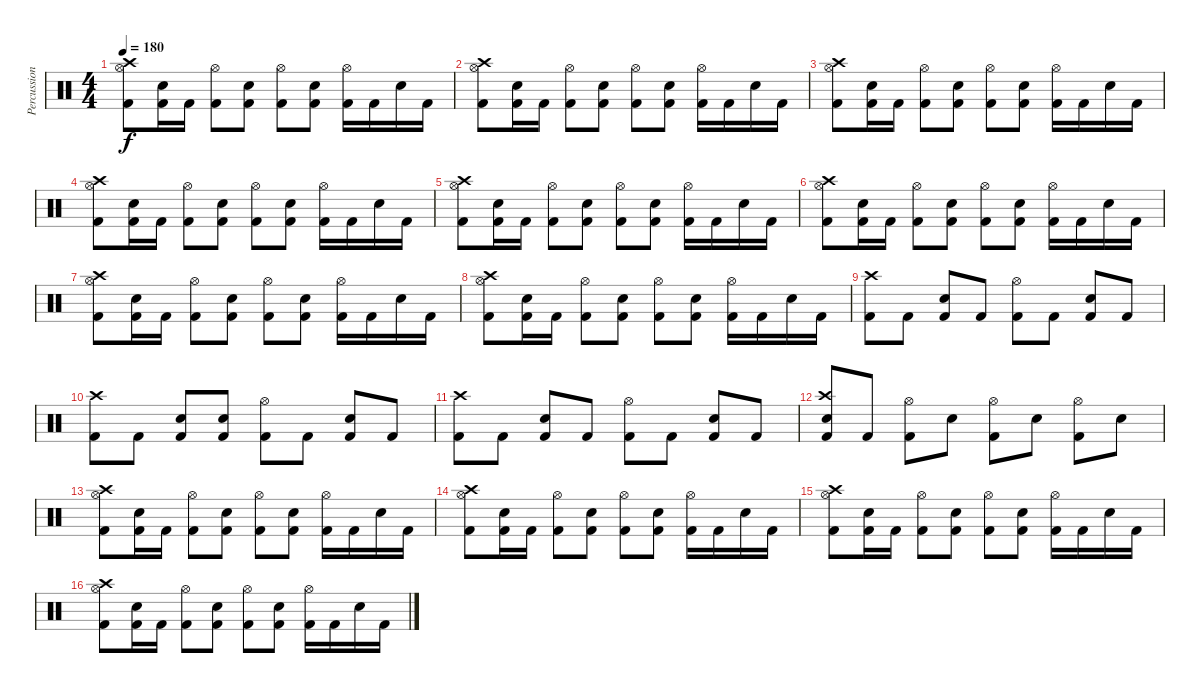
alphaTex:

\track ("Percussion" "Percussion") {instrument percussion}
\staff {score}
\articulation defaults
\ts (4 4)
\tempo 180
\clef neutral
\ks c
("Hi-Hat (open)" "Kick (hit) 2" "Crash high (hit)").8{dy f} ("Electric Snare (hit)" "Kick (hit) 2").16 "Kick (hit) 2".16 ("Hi-Hat (open)" "Kick (hit) 2").8 ("Electric Snare (hit)" "Kick (hit) 2").8 ("Hi-Hat (open)" "Kick (hit) 2").8 ("Electric Snare (hit)" "Kick (hit) 2").8 ("Hi-Hat (open)" "Kick (hit) 2").16 "Kick (hit) 2".16 "Electric Snare (hit)".16 "Kick (hit) 2".16 |
("Hi-Hat (open)" "Kick (hit) 2" "Crash high (hit)").8 ("Electric Snare (hit)" "Kick (hit) 2").16 "Kick (hit) 2".16 ("Hi-Hat (open)" "Kick (hit) 2").8 ("Electric Snare (hit)" "Kick (hit) 2").8 ("Hi-Hat (open)" "Kick (hit) 2").8 ("Electric Snare (hit)" "Kick (hit) 2").8 ("Hi-Hat (open)" "Kick (hit) 2").16 "Kick (hit) 2".16 "Electric Snare (hit)".16 "Kick (hit) 2".16 |
("Hi-Hat (open)" "Kick (hit) 2" "Crash high (hit)").8 ("Electric Snare (hit)" "Kick (hit) 2").16 "Kick (hit) 2".16 ("Hi-Hat (open)" "Kick (hit) 2").8 ("Electric Snare (hit)" "Kick (hit) 2").8 ("Hi-Hat (open)" "Kick (hit) 2").8 ("Electric Snare (hit)" "Kick (hit) 2").8 ("Hi-Hat (open)" "Kick (hit) 2").16 "Kick (hit) 2".16 "Electric Snare (hit)".16 "Kick (hit) 2".16 |
("Hi-Hat (open)" "Kick (hit) 2" "Crash high (hit)").8 ("Electric Snare (hit)" "Kick (hit) 2").16 "Kick (hit) 2".16 ("Hi-Hat (open)" "Kick (hit) 2").8 ("Electric Snare (hit)" "Kick (hit) 2").8 ("Hi-Hat (open)" "Kick (hit) 2").8 ("Electric Snare (hit)" "Kick (hit) 2").8 ("Hi-Hat (open)" "Kick (hit) 2").16 "Kick (hit) 2".16 "Electric Snare (hit)".16 "Kick (hit) 2".16 |
("Hi-Hat (open)" "Kick (hit) 2" "Crash high (hit)").8 ("Electric Snare (hit)" "Kick (hit) 2").16 "Kick (hit) 2".16 ("Hi-Hat (open)" "Kick (hit) 2").8 ("Electric Snare (hit)" "Kick (hit) 2").8 ("Hi-Hat (open)" "Kick (hit) 2").8 ("Electric Snare (hit)" "Kick (hit) 2").8 ("Hi-Hat (open)" "Kick (hit) 2").16 "Kick (hit) 2".16 "Electric Snare (hit)".16 "Kick (hit) 2".16 |
("Hi-Hat (open)" "Kick (hit) 2" "Crash high (hit)").8 ("Electric Snare (hit)" "Kick (hit) 2").16 "Kick (hit) 2".16 ("Hi-Hat (open)" "Kick (hit) 2").8 ("Electric Snare (hit)" "Kick (hit) 2").8 ("Hi-Hat (open)" "Kick (hit) 2").8 ("Electric Snare (hit)" "Kick (hit) 2").8 ("Hi-Hat (open)" "Kick (hit) 2").16 "Kick (hit) 2".16 "Electric Snare (hit)".16 "Kick (hit) 2".16 |
("Hi-Hat (open)" "Kick (hit) 2" "Crash high (hit)").8 ("Electric Snare (hit)" "Kick (hit) 2").16 "Kick (hit) 2".16 ("Hi-Hat (open)" "Kick (hit) 2").8 ("Electric Snare (hit)" "Kick (hit) 2").8 ("Hi-Hat (open)" "Kick (hit) 2").8 ("Electric Snare (hit)" "Kick (hit) 2").8 ("Hi-Hat (open)" "Kick (hit) 2").16 "Kick (hit) 2".16 "Electric Snare (hit)".16 "Kick (hit) 2".16 |
("Hi-Hat (open)" "Kick (hit) 2" "Crash high (hit)").8 ("Electric Snare (hit)" "Kick (hit) 2").16 "Kick (hit) 2".16 ("Hi-Hat (open)" "Kick (hit) 2").8 ("Electric Snare (hit)" "Kick (hit) 2").8 ("Hi-Hat (open)" "Kick (hit) 2").8 ("Electric Snare (hit)" "Kick (hit) 2").8 ("Hi-Hat (open)" "Kick (hit) 2").16 "Kick (hit) 2".16 "Electric Snare (hit)".16 "Kick (hit) 2".16 |
("Crash high (hit)" "Kick (hit) 2").8 "Kick (hit) 2".8 ("Electric Snare (hit)" "Kick (hit) 2").8 "Kick (hit) 2".8 ("Hi-Hat (open)" "Kick (hit) 2").8 "Kick (hit) 2".8 ("Electric Snare (hit)" "Kick (hit) 2").8 "Kick (hit) 2".8 |
("Crash high (hit)" "Kick (hit) 2").8 "Kick (hit) 2".8 ("Electric Snare (hit)" "Kick (hit) 2").8 ("Electric Snare (hit)" "Kick (hit) 2").8 ("Hi-Hat (open)" "Kick (hit) 2").8 "Kick (hit) 2".8 ("Electric Snare (hit)" "Kick (hit) 2").8 "Kick (hit) 2".8 |
("Crash high (hit)" "Kick (hit) 2").8 "Kick (hit) 2".8 ("Electric Snare (hit)" "Kick (hit) 2").8 "Kick (hit) 2".8 ("Hi-Hat (open)" "Kick (hit) 2").8 "Kick (hit) 2".8 ("Electric Snare (hit)" "Kick (hit) 2").8 "Kick (hit) 2".8 |
("Electric Snare (hit)" "Kick (hit) 2" "Crash high (hit)").8 "Kick (hit) 2".8 ("Kick (hit) 2" "Hi-Hat (open)").8 "Electric Snare (hit)".8 ("Kick (hit) 2" "Hi-Hat (open)").8 "Electric Snare (hit)".8 ("Kick (hit) 2" "Hi-Hat (open)").8 "Electric Snare (hit)".8 |
("Hi-Hat (open)" "Kick (hit) 2" "Crash high (hit)").8 ("Electric Snare (hit)" "Kick (hit) 2").16 "Kick (hit) 2".16 ("Hi-Hat (open)" "Kick (hit) 2").8 ("Electric Snare (hit)" "Kick (hit) 2").8 ("Hi-Hat (open)" "Kick (hit) 2").8 ("Electric Snare (hit)" "Kick (hit) 2").8 ("Hi-Hat (open)" "Kick (hit) 2").16 "Kick (hit) 2".16 "Electric Snare (hit)".16 "Kick (hit) 2".16 |
("Hi-Hat (open)" "Kick (hit) 2" "Crash high (hit)").8 ("Electric Snare (hit)" "Kick (hit) 2").16 "Kick (hit) 2".16 ("Hi-Hat (open)" "Kick (hit) 2").8 ("Electric Snare (hit)" "Kick (hit) 2").8 ("Hi-Hat (open)" "Kick (hit) 2").8 ("Electric Snare (hit)" "Kick (hit) 2").8 ("Hi-Hat (open)" "Kick (hit) 2").16 "Kick (hit) 2".16 "Electric Snare (hit)".16 "Kick (hit) 2".16 |
("Hi-Hat (open)" "Kick (hit) 2" "Crash high (hit)").8 ("Electric Snare (hit)" "Kick (hit) 2").16 "Kick (hit) 2".16 ("Hi-Hat (open)" "Kick (hit) 2").8 ("Electric Snare (hit)" "Kick (hit) 2").8 ("Hi-Hat (open)" "Kick (hit) 2").8 ("Electric Snare (hit)" "Kick (hit) 2").8 ("Hi-Hat (open)" "Kick (hit) 2").16 "Kick (hit) 2".16 "Electric Snare (hit)".16 "Kick (hit) 2".16 |
("Hi-Hat (open)" "Kick (hit) 2" "Crash high (hit)").8 ("Electric Snare (hit)" "Kick (hit) 2").16 "Kick (hit) 2".16 ("Hi-Hat (open)" "Kick (hit) 2").8 ("Electric Snare (hit)" "Kick (hit) 2").8 ("Hi-Hat (open)" "Kick (hit) 2").8 ("Electric Snare (hit)" "Kick (hit) 2").8 ("Hi-Hat (open)" "Kick (hit) 2").16 "Kick (hit) 2".16 "Electric Snare (hit)".16 "Kick (hit) 2".16
